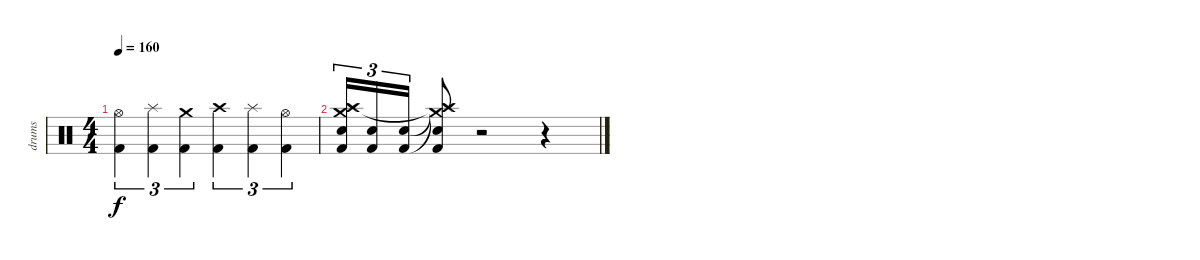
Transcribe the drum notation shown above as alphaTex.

\track ("drums" "drums") {instrument percussion}
\staff {score}
\articulation defaults
\ts (4 4)
\tempo 160
\clef neutral
\ks c
("Hi-Hat (open)" "Kick (hit) 2").4{tu (3 2) dy f} ("Splash (hit)" "Kick (hit) 2").4{tu (3 2)} ("Crash medium (hit)" "Kick (hit) 2").4{tu (3 2)} ("Crash high (hit)" "Kick (hit) 2").4{tu (3 2)} ("Splash (hit)" "Kick (hit) 2").4{tu (3 2)} ("Hi-Hat (open)" "Kick (hit) 2").4{tu (3 2)} |
("Splash (hit)" "Crash medium (hit)" "Crash high (hit)" "Snare (hit) 2" "Kick (hit) 2").16{tu (3 2)} ("Snare (hit) 2" "Kick (hit) 2").16{tu (3 2)} ("Snare (hit) 2" "Kick (hit) 2").16{tu (3 2)} ("Splash (hit)"{t} "Crash medium (hit)"{t} "Crash high (hit)"{t} "Snare (hit) 2" "Kick (hit) 2").8 r.2 r.4
